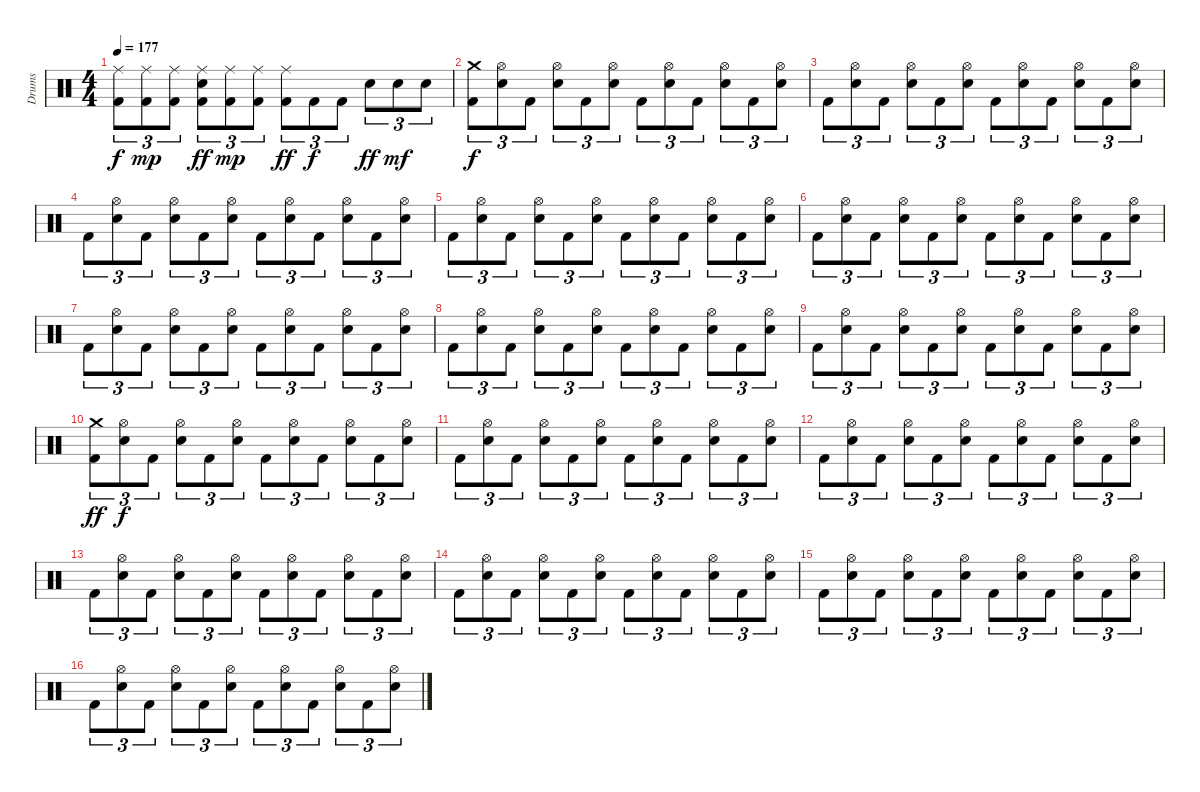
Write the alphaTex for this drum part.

\track ("Drums" "Drums") {instrument percussion}
\staff {score}
\articulation defaults
\ts (4 4)
\tempo 177
\clef neutral
\ks c
("Ride (middle)" "Kick (hit) 2").8{tu (3 2) dy f} ("Ride (middle)" "Kick (hit) 2").8{tu (3 2) dy mp} ("Ride (middle)" "Kick (hit) 2").8{tu (3 2)} ("Ride (middle)" "Electric Snare (hit)" "Kick (hit) 2").8{tu (3 2) dy ff} ("Ride (middle)" "Kick (hit) 2").8{tu (3 2) dy mp} ("Ride (middle)" "Kick (hit) 2").8{tu (3 2)} ("Ride (middle)" "Kick (hit) 2").8{tu (3 2) dy ff} "Kick (hit) 2".8{tu (3 2) dy f} "Kick (hit) 2".8{tu (3 2)} "Electric Snare (hit)".8{tu (3 2) dy ff} "Electric Snare (hit)".8{tu (3 2) dy mf} "Electric Snare (hit)".8{tu (3 2)} |
("Crash medium (hit)" "Kick (hit) 2").8{tu (3 2) dy f} ("Hi-Hat (open)" "Electric Snare (hit)").8{tu (3 2)} "Kick (hit) 2".8{tu (3 2)} ("Hi-Hat (open)" "Electric Snare (hit)").8{tu (3 2)} "Kick (hit) 2".8{tu (3 2)} ("Hi-Hat (open)" "Electric Snare (hit)").8{tu (3 2)} "Kick (hit) 2".8{tu (3 2)} ("Hi-Hat (open)" "Electric Snare (hit)").8{tu (3 2)} "Kick (hit) 2".8{tu (3 2)} ("Hi-Hat (open)" "Electric Snare (hit)").8{tu (3 2)} "Kick (hit) 2".8{tu (3 2)} ("Hi-Hat (open)" "Electric Snare (hit)").8{tu (3 2)} |
"Kick (hit) 2".8{tu (3 2)} ("Hi-Hat (open)" "Electric Snare (hit)").8{tu (3 2)} "Kick (hit) 2".8{tu (3 2)} ("Hi-Hat (open)" "Electric Snare (hit)").8{tu (3 2)} "Kick (hit) 2".8{tu (3 2)} ("Hi-Hat (open)" "Electric Snare (hit)").8{tu (3 2)} "Kick (hit) 2".8{tu (3 2)} ("Hi-Hat (open)" "Electric Snare (hit)").8{tu (3 2)} "Kick (hit) 2".8{tu (3 2)} ("Hi-Hat (open)" "Electric Snare (hit)").8{tu (3 2)} "Kick (hit) 2".8{tu (3 2)} ("Hi-Hat (open)" "Electric Snare (hit)").8{tu (3 2)} |
"Kick (hit) 2".8{tu (3 2)} ("Hi-Hat (open)" "Electric Snare (hit)").8{tu (3 2)} "Kick (hit) 2".8{tu (3 2)} ("Hi-Hat (open)" "Electric Snare (hit)").8{tu (3 2)} "Kick (hit) 2".8{tu (3 2)} ("Hi-Hat (open)" "Electric Snare (hit)").8{tu (3 2)} "Kick (hit) 2".8{tu (3 2)} ("Hi-Hat (open)" "Electric Snare (hit)").8{tu (3 2)} "Kick (hit) 2".8{tu (3 2)} ("Hi-Hat (open)" "Electric Snare (hit)").8{tu (3 2)} "Kick (hit) 2".8{tu (3 2)} ("Hi-Hat (open)" "Electric Snare (hit)").8{tu (3 2)} |
"Kick (hit) 2".8{tu (3 2)} ("Hi-Hat (open)" "Electric Snare (hit)").8{tu (3 2)} "Kick (hit) 2".8{tu (3 2)} ("Hi-Hat (open)" "Electric Snare (hit)").8{tu (3 2)} "Kick (hit) 2".8{tu (3 2)} ("Hi-Hat (open)" "Electric Snare (hit)").8{tu (3 2)} "Kick (hit) 2".8{tu (3 2)} ("Hi-Hat (open)" "Electric Snare (hit)").8{tu (3 2)} "Kick (hit) 2".8{tu (3 2)} ("Hi-Hat (open)" "Electric Snare (hit)").8{tu (3 2)} "Kick (hit) 2".8{tu (3 2)} ("Hi-Hat (open)" "Electric Snare (hit)").8{tu (3 2)} |
"Kick (hit) 2".8{tu (3 2)} ("Hi-Hat (open)" "Electric Snare (hit)").8{tu (3 2)} "Kick (hit) 2".8{tu (3 2)} ("Hi-Hat (open)" "Electric Snare (hit)").8{tu (3 2)} "Kick (hit) 2".8{tu (3 2)} ("Hi-Hat (open)" "Electric Snare (hit)").8{tu (3 2)} "Kick (hit) 2".8{tu (3 2)} ("Hi-Hat (open)" "Electric Snare (hit)").8{tu (3 2)} "Kick (hit) 2".8{tu (3 2)} ("Hi-Hat (open)" "Electric Snare (hit)").8{tu (3 2)} "Kick (hit) 2".8{tu (3 2)} ("Hi-Hat (open)" "Electric Snare (hit)").8{tu (3 2)} |
"Kick (hit) 2".8{tu (3 2)} ("Hi-Hat (open)" "Electric Snare (hit)").8{tu (3 2)} "Kick (hit) 2".8{tu (3 2)} ("Hi-Hat (open)" "Electric Snare (hit)").8{tu (3 2)} "Kick (hit) 2".8{tu (3 2)} ("Hi-Hat (open)" "Electric Snare (hit)").8{tu (3 2)} "Kick (hit) 2".8{tu (3 2)} ("Hi-Hat (open)" "Electric Snare (hit)").8{tu (3 2)} "Kick (hit) 2".8{tu (3 2)} ("Hi-Hat (open)" "Electric Snare (hit)").8{tu (3 2)} "Kick (hit) 2".8{tu (3 2)} ("Hi-Hat (open)" "Electric Snare (hit)").8{tu (3 2)} |
"Kick (hit) 2".8{tu (3 2)} ("Hi-Hat (open)" "Electric Snare (hit)").8{tu (3 2)} "Kick (hit) 2".8{tu (3 2)} ("Hi-Hat (open)" "Electric Snare (hit)").8{tu (3 2)} "Kick (hit) 2".8{tu (3 2)} ("Hi-Hat (open)" "Electric Snare (hit)").8{tu (3 2)} "Kick (hit) 2".8{tu (3 2)} ("Hi-Hat (open)" "Electric Snare (hit)").8{tu (3 2)} "Kick (hit) 2".8{tu (3 2)} ("Hi-Hat (open)" "Electric Snare (hit)").8{tu (3 2)} "Kick (hit) 2".8{tu (3 2)} ("Hi-Hat (open)" "Electric Snare (hit)").8{tu (3 2)} |
"Kick (hit) 2".8{tu (3 2)} ("Hi-Hat (open)" "Electric Snare (hit)").8{tu (3 2)} "Kick (hit) 2".8{tu (3 2)} ("Hi-Hat (open)" "Electric Snare (hit)").8{tu (3 2)} "Kick (hit) 2".8{tu (3 2)} ("Hi-Hat (open)" "Electric Snare (hit)").8{tu (3 2)} "Kick (hit) 2".8{tu (3 2)} ("Hi-Hat (open)" "Electric Snare (hit)").8{tu (3 2)} "Kick (hit) 2".8{tu (3 2)} ("Hi-Hat (open)" "Electric Snare (hit)").8{tu (3 2)} "Kick (hit) 2".8{tu (3 2)} ("Hi-Hat (open)" "Electric Snare (hit)").8{tu (3 2)} |
("Crash medium (hit)" "Kick (hit) 2").8{tu (3 2) dy ff} ("Hi-Hat (open)" "Electric Snare (hit)").8{tu (3 2) dy f} "Kick (hit) 2".8{tu (3 2)} ("Hi-Hat (open)" "Electric Snare (hit)").8{tu (3 2)} "Kick (hit) 2".8{tu (3 2)} ("Hi-Hat (open)" "Electric Snare (hit)").8{tu (3 2)} "Kick (hit) 2".8{tu (3 2)} ("Hi-Hat (open)" "Electric Snare (hit)").8{tu (3 2)} "Kick (hit) 2".8{tu (3 2)} ("Hi-Hat (open)" "Electric Snare (hit)").8{tu (3 2)} "Kick (hit) 2".8{tu (3 2)} ("Hi-Hat (open)" "Electric Snare (hit)").8{tu (3 2)} |
"Kick (hit) 2".8{tu (3 2)} ("Hi-Hat (open)" "Electric Snare (hit)").8{tu (3 2)} "Kick (hit) 2".8{tu (3 2)} ("Hi-Hat (open)" "Electric Snare (hit)").8{tu (3 2)} "Kick (hit) 2".8{tu (3 2)} ("Hi-Hat (open)" "Electric Snare (hit)").8{tu (3 2)} "Kick (hit) 2".8{tu (3 2)} ("Hi-Hat (open)" "Electric Snare (hit)").8{tu (3 2)} "Kick (hit) 2".8{tu (3 2)} ("Hi-Hat (open)" "Electric Snare (hit)").8{tu (3 2)} "Kick (hit) 2".8{tu (3 2)} ("Hi-Hat (open)" "Electric Snare (hit)").8{tu (3 2)} |
"Kick (hit) 2".8{tu (3 2)} ("Hi-Hat (open)" "Electric Snare (hit)").8{tu (3 2)} "Kick (hit) 2".8{tu (3 2)} ("Hi-Hat (open)" "Electric Snare (hit)").8{tu (3 2)} "Kick (hit) 2".8{tu (3 2)} ("Hi-Hat (open)" "Electric Snare (hit)").8{tu (3 2)} "Kick (hit) 2".8{tu (3 2)} ("Hi-Hat (open)" "Electric Snare (hit)").8{tu (3 2)} "Kick (hit) 2".8{tu (3 2)} ("Hi-Hat (open)" "Electric Snare (hit)").8{tu (3 2)} "Kick (hit) 2".8{tu (3 2)} ("Hi-Hat (open)" "Electric Snare (hit)").8{tu (3 2)} |
"Kick (hit) 2".8{tu (3 2)} ("Hi-Hat (open)" "Electric Snare (hit)").8{tu (3 2)} "Kick (hit) 2".8{tu (3 2)} ("Hi-Hat (open)" "Electric Snare (hit)").8{tu (3 2)} "Kick (hit) 2".8{tu (3 2)} ("Hi-Hat (open)" "Electric Snare (hit)").8{tu (3 2)} "Kick (hit) 2".8{tu (3 2)} ("Hi-Hat (open)" "Electric Snare (hit)").8{tu (3 2)} "Kick (hit) 2".8{tu (3 2)} ("Hi-Hat (open)" "Electric Snare (hit)").8{tu (3 2)} "Kick (hit) 2".8{tu (3 2)} ("Hi-Hat (open)" "Electric Snare (hit)").8{tu (3 2)} |
"Kick (hit) 2".8{tu (3 2)} ("Hi-Hat (open)" "Electric Snare (hit)").8{tu (3 2)} "Kick (hit) 2".8{tu (3 2)} ("Hi-Hat (open)" "Electric Snare (hit)").8{tu (3 2)} "Kick (hit) 2".8{tu (3 2)} ("Hi-Hat (open)" "Electric Snare (hit)").8{tu (3 2)} "Kick (hit) 2".8{tu (3 2)} ("Hi-Hat (open)" "Electric Snare (hit)").8{tu (3 2)} "Kick (hit) 2".8{tu (3 2)} ("Hi-Hat (open)" "Electric Snare (hit)").8{tu (3 2)} "Kick (hit) 2".8{tu (3 2)} ("Hi-Hat (open)" "Electric Snare (hit)").8{tu (3 2)} |
"Kick (hit) 2".8{tu (3 2)} ("Hi-Hat (open)" "Electric Snare (hit)").8{tu (3 2)} "Kick (hit) 2".8{tu (3 2)} ("Hi-Hat (open)" "Electric Snare (hit)").8{tu (3 2)} "Kick (hit) 2".8{tu (3 2)} ("Hi-Hat (open)" "Electric Snare (hit)").8{tu (3 2)} "Kick (hit) 2".8{tu (3 2)} ("Hi-Hat (open)" "Electric Snare (hit)").8{tu (3 2)} "Kick (hit) 2".8{tu (3 2)} ("Hi-Hat (open)" "Electric Snare (hit)").8{tu (3 2)} "Kick (hit) 2".8{tu (3 2)} ("Hi-Hat (open)" "Electric Snare (hit)").8{tu (3 2)} |
"Kick (hit) 2".8{tu (3 2)} ("Hi-Hat (open)" "Electric Snare (hit)").8{tu (3 2)} "Kick (hit) 2".8{tu (3 2)} ("Hi-Hat (open)" "Electric Snare (hit)").8{tu (3 2)} "Kick (hit) 2".8{tu (3 2)} ("Hi-Hat (open)" "Electric Snare (hit)").8{tu (3 2)} "Kick (hit) 2".8{tu (3 2)} ("Hi-Hat (open)" "Electric Snare (hit)").8{tu (3 2)} "Kick (hit) 2".8{tu (3 2)} ("Hi-Hat (open)" "Electric Snare (hit)").8{tu (3 2)} "Kick (hit) 2".8{tu (3 2)} ("Hi-Hat (open)" "Electric Snare (hit)").8{tu (3 2)}
